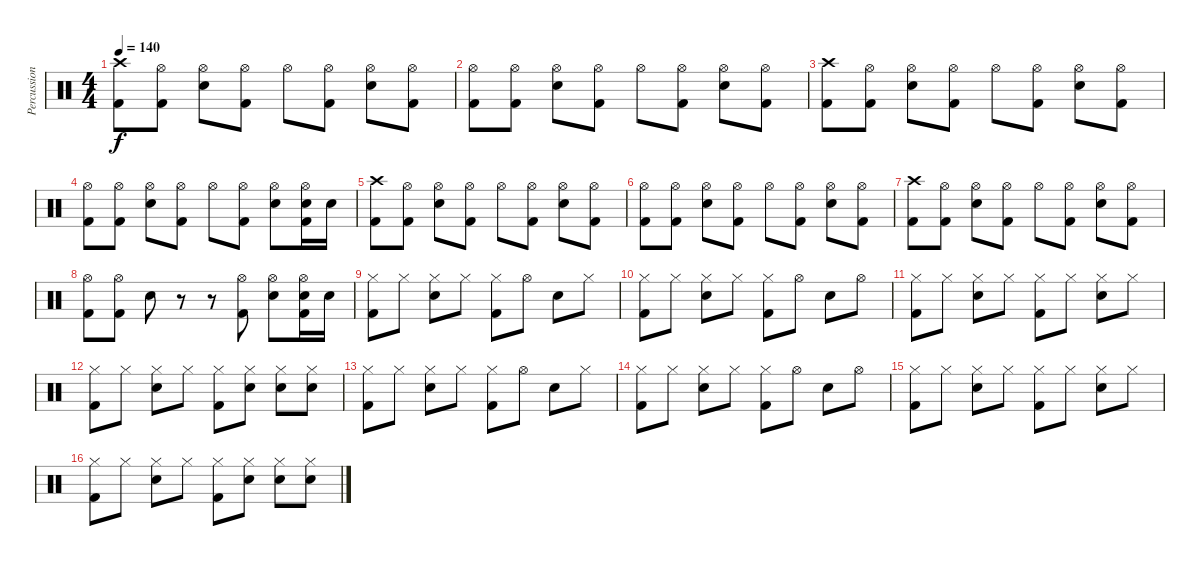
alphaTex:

\track ("Percussion" "Percussion") {instrument percussion}
\staff {score}
\articulation defaults
\ts (4 4)
\tempo 140
\clef neutral
\ks c
("Crash high (hit)" "Kick (hit) 2").8{dy f} ("Hi-Hat (open)" "Kick (hit) 2").8 ("Hi-Hat (open)" "Electric Snare (hit)").8 ("Hi-Hat (open)" "Kick (hit) 2").8 "Hi-Hat (open)".8 ("Hi-Hat (open)" "Kick (hit) 2").8 ("Hi-Hat (open)" "Electric Snare (hit)").8 ("Hi-Hat (open)" "Kick (hit) 2").8 |
("Hi-Hat (open)" "Kick (hit) 2").8 ("Hi-Hat (open)" "Kick (hit) 2").8 ("Hi-Hat (open)" "Electric Snare (hit)").8 ("Hi-Hat (open)" "Kick (hit) 2").8 "Hi-Hat (open)".8 ("Hi-Hat (open)" "Kick (hit) 2").8 ("Hi-Hat (open)" "Electric Snare (hit)").8 ("Hi-Hat (open)" "Kick (hit) 2").8 |
("Crash high (hit)" "Kick (hit) 2").8 ("Hi-Hat (open)" "Kick (hit) 2").8 ("Hi-Hat (open)" "Electric Snare (hit)").8 ("Hi-Hat (open)" "Kick (hit) 2").8 "Hi-Hat (open)".8 ("Hi-Hat (open)" "Kick (hit) 2").8 ("Hi-Hat (open)" "Electric Snare (hit)").8 ("Hi-Hat (open)" "Kick (hit) 2").8 |
("Hi-Hat (open)" "Kick (hit) 2").8 ("Hi-Hat (open)" "Kick (hit) 2").8 ("Hi-Hat (open)" "Electric Snare (hit)").8 ("Hi-Hat (open)" "Kick (hit) 2").8 "Hi-Hat (open)".8 ("Hi-Hat (open)" "Kick (hit) 2").8 ("Hi-Hat (open)" "Electric Snare (hit)").8 ("Hi-Hat (open)" "Electric Snare (hit)" "Kick (hit) 2").16 "Electric Snare (hit)".16 |
("Crash high (hit)" "Kick (hit) 2").8 ("Hi-Hat (open)" "Kick (hit) 2").8 ("Hi-Hat (open)" "Electric Snare (hit)").8 ("Hi-Hat (open)" "Kick (hit) 2").8 "Hi-Hat (open)".8 ("Hi-Hat (open)" "Kick (hit) 2").8 ("Hi-Hat (open)" "Electric Snare (hit)").8 ("Hi-Hat (open)" "Kick (hit) 2").8 |
("Hi-Hat (open)" "Kick (hit) 2").8 ("Hi-Hat (open)" "Kick (hit) 2").8 ("Hi-Hat (open)" "Electric Snare (hit)").8 ("Hi-Hat (open)" "Kick (hit) 2").8 "Hi-Hat (open)".8 ("Hi-Hat (open)" "Kick (hit) 2").8 ("Hi-Hat (open)" "Electric Snare (hit)").8 ("Hi-Hat (open)" "Kick (hit) 2").8 |
("Crash high (hit)" "Kick (hit) 2").8 ("Hi-Hat (open)" "Kick (hit) 2").8 ("Hi-Hat (open)" "Electric Snare (hit)").8 ("Hi-Hat (open)" "Kick (hit) 2").8 "Hi-Hat (open)".8 ("Hi-Hat (open)" "Kick (hit) 2").8 ("Hi-Hat (open)" "Electric Snare (hit)").8 ("Hi-Hat (open)" "Kick (hit) 2").8 |
("Hi-Hat (open)" "Kick (hit) 2").8 ("Hi-Hat (open)" "Kick (hit) 2").8 "Electric Snare (hit)".8 r.8 r.8 ("Hi-Hat (open)" "Kick (hit) 2").8 ("Hi-Hat (open)" "Electric Snare (hit)").8 ("Hi-Hat (open)" "Electric Snare (hit)" "Kick (hit) 2").16 "Electric Snare (hit)".16 |
("Hi-Hat (closed)" "Kick (hit) 2").8 "Hi-Hat (closed)".8 ("Hi-Hat (closed)" "Electric Snare (hit)").8 "Hi-Hat (closed)".8 ("Hi-Hat (closed)" "Kick (hit) 2").8 "Hi-Hat (open)".8 "Electric Snare (hit)".8 "Hi-Hat (closed)".8 |
("Hi-Hat (closed)" "Kick (hit) 2").8 "Hi-Hat (closed)".8 ("Hi-Hat (closed)" "Electric Snare (hit)").8 "Hi-Hat (closed)".8 ("Hi-Hat (closed)" "Kick (hit) 2").8 "Hi-Hat (open)".8 "Electric Snare (hit)".8 "Hi-Hat (open)".8 |
("Hi-Hat (closed)" "Kick (hit) 2").8 "Hi-Hat (closed)".8 ("Hi-Hat (closed)" "Electric Snare (hit)").8 "Hi-Hat (closed)".8 ("Hi-Hat (closed)" "Kick (hit) 2").8 "Hi-Hat (closed)".8 ("Hi-Hat (closed)" "Electric Snare (hit)").8 "Hi-Hat (closed)".8 |
("Hi-Hat (closed)" "Kick (hit) 2").8 "Hi-Hat (closed)".8 ("Hi-Hat (closed)" "Electric Snare (hit)").8 "Hi-Hat (closed)".8 ("Hi-Hat (closed)" "Kick (hit) 2").8 ("Hi-Hat (closed)" "Electric Snare (hit)").8 ("Hi-Hat (closed)" "Electric Snare (hit)").8 ("Hi-Hat (closed)" "Electric Snare (hit)").8 |
("Hi-Hat (closed)" "Kick (hit) 2").8 "Hi-Hat (closed)".8 ("Hi-Hat (closed)" "Electric Snare (hit)").8 "Hi-Hat (closed)".8 ("Hi-Hat (closed)" "Kick (hit) 2").8 "Hi-Hat (open)".8 "Electric Snare (hit)".8 "Hi-Hat (closed)".8 |
("Hi-Hat (closed)" "Kick (hit) 2").8 "Hi-Hat (closed)".8 ("Hi-Hat (closed)" "Electric Snare (hit)").8 "Hi-Hat (closed)".8 ("Hi-Hat (closed)" "Kick (hit) 2").8 "Hi-Hat (open)".8 "Electric Snare (hit)".8 "Hi-Hat (open)".8 |
("Hi-Hat (closed)" "Kick (hit) 2").8 "Hi-Hat (closed)".8 ("Hi-Hat (closed)" "Electric Snare (hit)").8 "Hi-Hat (closed)".8 ("Hi-Hat (closed)" "Kick (hit) 2").8 "Hi-Hat (closed)".8 ("Hi-Hat (closed)" "Electric Snare (hit)").8 "Hi-Hat (closed)".8 |
("Hi-Hat (closed)" "Kick (hit) 2").8 "Hi-Hat (closed)".8 ("Hi-Hat (closed)" "Electric Snare (hit)").8 "Hi-Hat (closed)".8 ("Hi-Hat (closed)" "Kick (hit) 2").8 ("Hi-Hat (closed)" "Electric Snare (hit)").8 ("Hi-Hat (closed)" "Electric Snare (hit)").8 ("Hi-Hat (closed)" "Electric Snare (hit)").8
